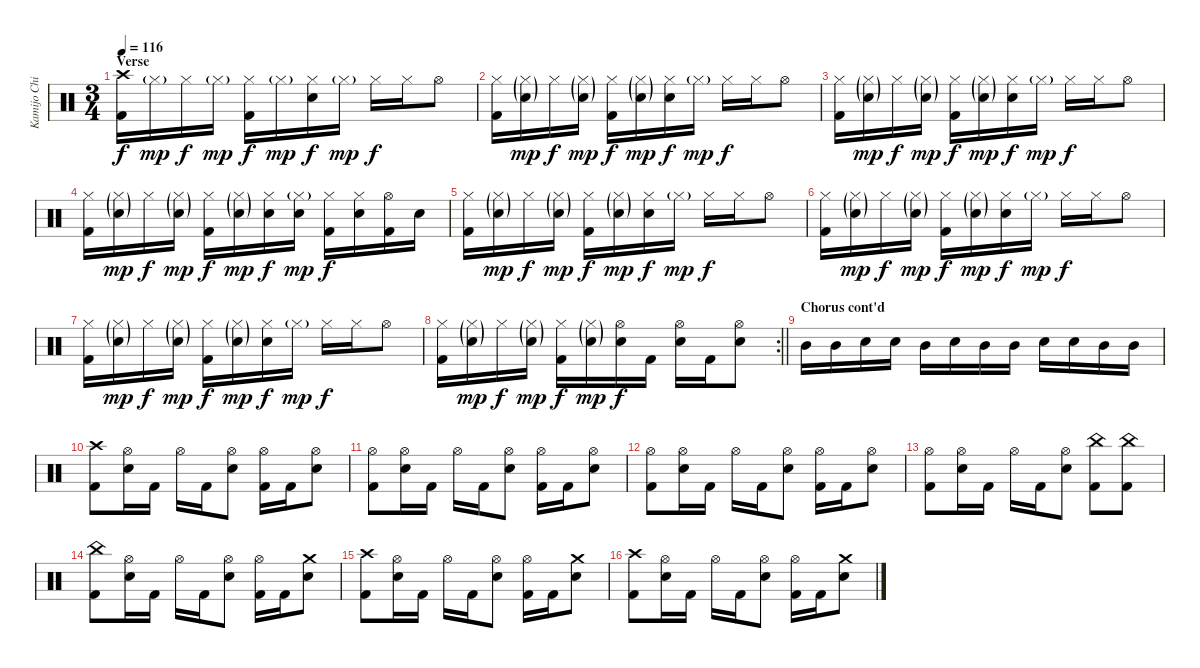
\track ("Kamijo Chihiro" "Kamijo Chi") {instrument percussion}
\staff {score}
\articulation defaults
\ts (3 4)
\section ("" "Verse")
\tempo 116
\clef neutral
\ks c
("Crash high (hit)" "Kick (hit) 2").16{dy f} "Hi-Hat (closed)"{g}.16{dy mp} "Hi-Hat (closed)".16{dy f} "Hi-Hat (closed)"{g}.16{dy mp} ("Hi-Hat (closed)" "Kick (hit) 2").16{dy f} "Hi-Hat (closed)"{g}.16{dy mp} ("Hi-Hat (closed)" "Snare (hit) 2").16{dy f} "Hi-Hat (closed)"{g}.16{dy mp} "Hi-Hat (closed)".16{dy f} "Hi-Hat (closed)".16 "Hi-Hat (open)".8 |
("Hi-Hat (closed)" "Kick (hit) 2").16 ("Hi-Hat (closed)"{g} "Snare (hit) 2"{g}).16{dy mp} "Hi-Hat (closed)".16{dy f} ("Hi-Hat (closed)"{g} "Snare (hit) 2"{g}).16{dy mp} ("Hi-Hat (closed)" "Kick (hit) 2").16{dy f} ("Hi-Hat (closed)"{g} "Snare (hit) 2"{g}).16{dy mp} ("Hi-Hat (closed)" "Snare (hit) 2").16{dy f} "Hi-Hat (closed)"{g}.16{dy mp} "Hi-Hat (closed)".16{dy f} "Hi-Hat (closed)".16 "Hi-Hat (open)".8 |
("Hi-Hat (closed)" "Kick (hit) 2").16 ("Hi-Hat (closed)"{g} "Snare (hit) 2"{g}).16{dy mp} "Hi-Hat (closed)".16{dy f} ("Hi-Hat (closed)"{g} "Snare (hit) 2"{g}).16{dy mp} ("Hi-Hat (closed)" "Kick (hit) 2").16{dy f} ("Hi-Hat (closed)"{g} "Snare (hit) 2"{g}).16{dy mp} ("Hi-Hat (closed)" "Snare (hit) 2").16{dy f} "Hi-Hat (closed)"{g}.16{dy mp} "Hi-Hat (closed)".16{dy f} "Hi-Hat (closed)".16 "Hi-Hat (open)".8 |
("Hi-Hat (closed)" "Kick (hit) 2").16 ("Hi-Hat (closed)"{g} "Snare (hit) 2"{g}).16{dy mp} "Hi-Hat (closed)".16{dy f} ("Hi-Hat (closed)"{g} "Snare (hit) 2"{g}).16{dy mp} ("Hi-Hat (closed)" "Kick (hit) 2").16{dy f} ("Hi-Hat (closed)"{g} "Snare (hit) 2"{g}).16{dy mp} ("Hi-Hat (closed)" "Snare (hit) 2").16{dy f} ("Hi-Hat (closed)"{g} "Snare (hit) 2").16{dy mp} ("Hi-Hat (closed)" "Kick (hit) 2").16{dy f} ("Hi-Hat (closed)" "Snare (hit) 2").16 ("Hi-Hat (open)" "Kick (hit) 2").16 "Snare (hit) 2".16 |
("Hi-Hat (closed)" "Kick (hit) 2").16 ("Hi-Hat (closed)"{g} "Snare (hit) 2"{g}).16{dy mp} "Hi-Hat (closed)".16{dy f} ("Hi-Hat (closed)"{g} "Snare (hit) 2"{g}).16{dy mp} ("Hi-Hat (closed)" "Kick (hit) 2").16{dy f} ("Hi-Hat (closed)"{g} "Snare (hit) 2"{g}).16{dy mp} ("Hi-Hat (closed)" "Snare (hit) 2").16{dy f} "Hi-Hat (closed)"{g}.16{dy mp} "Hi-Hat (closed)".16{dy f} "Hi-Hat (closed)".16 "Hi-Hat (open)".8 |
("Hi-Hat (closed)" "Kick (hit) 2").16 ("Hi-Hat (closed)"{g} "Snare (hit) 2"{g}).16{dy mp} "Hi-Hat (closed)".16{dy f} ("Hi-Hat (closed)"{g} "Snare (hit) 2"{g}).16{dy mp} ("Hi-Hat (closed)" "Kick (hit) 2").16{dy f} ("Hi-Hat (closed)"{g} "Snare (hit) 2"{g}).16{dy mp} ("Hi-Hat (closed)" "Snare (hit) 2").16{dy f} "Hi-Hat (closed)"{g}.16{dy mp} "Hi-Hat (closed)".16{dy f} "Hi-Hat (closed)".16 "Hi-Hat (open)".8 |
("Hi-Hat (closed)" "Kick (hit) 2").16 ("Hi-Hat (closed)"{g} "Snare (hit) 2"{g}).16{dy mp} "Hi-Hat (closed)".16{dy f} ("Hi-Hat (closed)"{g} "Snare (hit) 2"{g}).16{dy mp} ("Hi-Hat (closed)" "Kick (hit) 2").16{dy f} ("Hi-Hat (closed)"{g} "Snare (hit) 2"{g}).16{dy mp} ("Hi-Hat (closed)" "Snare (hit) 2").16{dy f} "Hi-Hat (closed)"{g}.16{dy mp} "Hi-Hat (closed)".16{dy f} "Hi-Hat (closed)".16 "Hi-Hat (open)".8 |
\rc 2
\barLineRight lightlight
("Hi-Hat (closed)" "Kick (hit) 2").16 ("Hi-Hat (closed)"{g} "Snare (hit) 2"{g}).16{dy mp} "Hi-Hat (closed)".16{dy f} ("Hi-Hat (closed)"{g} "Snare (hit) 2"{g}).16{dy mp} ("Hi-Hat (closed)" "Kick (hit) 2").16{dy f} ("Hi-Hat (closed)"{g} "Snare (hit) 2"{g}).16{dy mp} ("Hi-Hat (open)" "Snare (hit) 2").16{dy f} "Kick (hit) 2".16 ("Hi-Hat (open)" "Snare (hit) 2").16 "Kick (hit) 2".16 ("Hi-Hat (open)" "Snare (hit) 2").8 |
\section ("" "Chorus cont'd")
"Mid Tom (hit)".16 "Mid Tom (hit)".16 "Snare (hit) 2".16 "Snare (hit) 2".16 "Mid Tom (hit)".16 "Snare (hit) 2".16 "Mid Tom (hit)".16 "Mid Tom (hit)".16 "Snare (hit) 2".16 "Snare (hit) 2".16 "Mid Tom (hit)".16 "Mid Tom (hit)".16 |
("Crash high (hit)" "Kick (hit) 2").8 ("Hi-Hat (open)" "Snare (hit) 2").16 "Kick (hit) 2".16 "Hi-Hat (open)".16 "Kick (hit) 2".16 ("Hi-Hat (open)" "Snare (hit) 2").8 ("Hi-Hat (open)" "Kick (hit) 2").16 "Kick (hit) 2".16 ("Hi-Hat (open)" "Snare (hit) 2").8 |
("Hi-Hat (open)" "Kick (hit) 2").8 ("Hi-Hat (open)" "Snare (hit) 2").16 "Kick (hit) 2".16 "Hi-Hat (open)".16 "Kick (hit) 2".16 ("Hi-Hat (open)" "Snare (hit) 2").8 ("Hi-Hat (open)" "Kick (hit) 2").16 "Kick (hit) 2".16 ("Hi-Hat (open)" "Snare (hit) 2").8 |
("Hi-Hat (open)" "Kick (hit) 2").8 ("Hi-Hat (open)" "Snare (hit) 2").16 "Kick (hit) 2".16 "Hi-Hat (open)".16 "Kick (hit) 2".16 ("Hi-Hat (open)" "Snare (hit) 2").8 ("Hi-Hat (open)" "Kick (hit) 2").16 "Kick (hit) 2".16 ("Hi-Hat (open)" "Snare (hit) 2").8 |
("Hi-Hat (open)" "Kick (hit) 2").8 ("Hi-Hat (open)" "Snare (hit) 2").16 "Kick (hit) 2".16 "Hi-Hat (open)".16 "Kick (hit) 2".16 ("Hi-Hat (open)" "Snare (hit) 2").8 ("China (hit)" "Kick (hit) 2").8 ("China (hit)" "Kick (hit) 2").8 |
("China (hit)" "Kick (hit) 2").8 ("Hi-Hat (open)" "Snare (hit) 2").16 "Kick (hit) 2".16 "Hi-Hat (open)".16 "Kick (hit) 2".16 ("Hi-Hat (open)" "Snare (hit) 2").8 ("Hi-Hat (open)" "Kick (hit) 2").16 "Kick (hit) 2".16 ("Crash medium (hit)" "Snare (hit) 2").8 |
("Crash high (hit)" "Kick (hit) 2").8 ("Hi-Hat (open)" "Snare (hit) 2").16 "Kick (hit) 2".16 "Hi-Hat (open)".16 "Kick (hit) 2".16 ("Hi-Hat (open)" "Snare (hit) 2").8 ("Hi-Hat (open)" "Kick (hit) 2").16 "Kick (hit) 2".16 ("Crash medium (hit)" "Snare (hit) 2").8 |
("Crash high (hit)" "Kick (hit) 2").8 ("Hi-Hat (open)" "Snare (hit) 2").16 "Kick (hit) 2".16 "Hi-Hat (open)".16 "Kick (hit) 2".16 ("Hi-Hat (open)" "Snare (hit) 2").8 ("Hi-Hat (open)" "Kick (hit) 2").16 "Kick (hit) 2".16 ("Crash medium (hit)" "Snare (hit) 2").8
